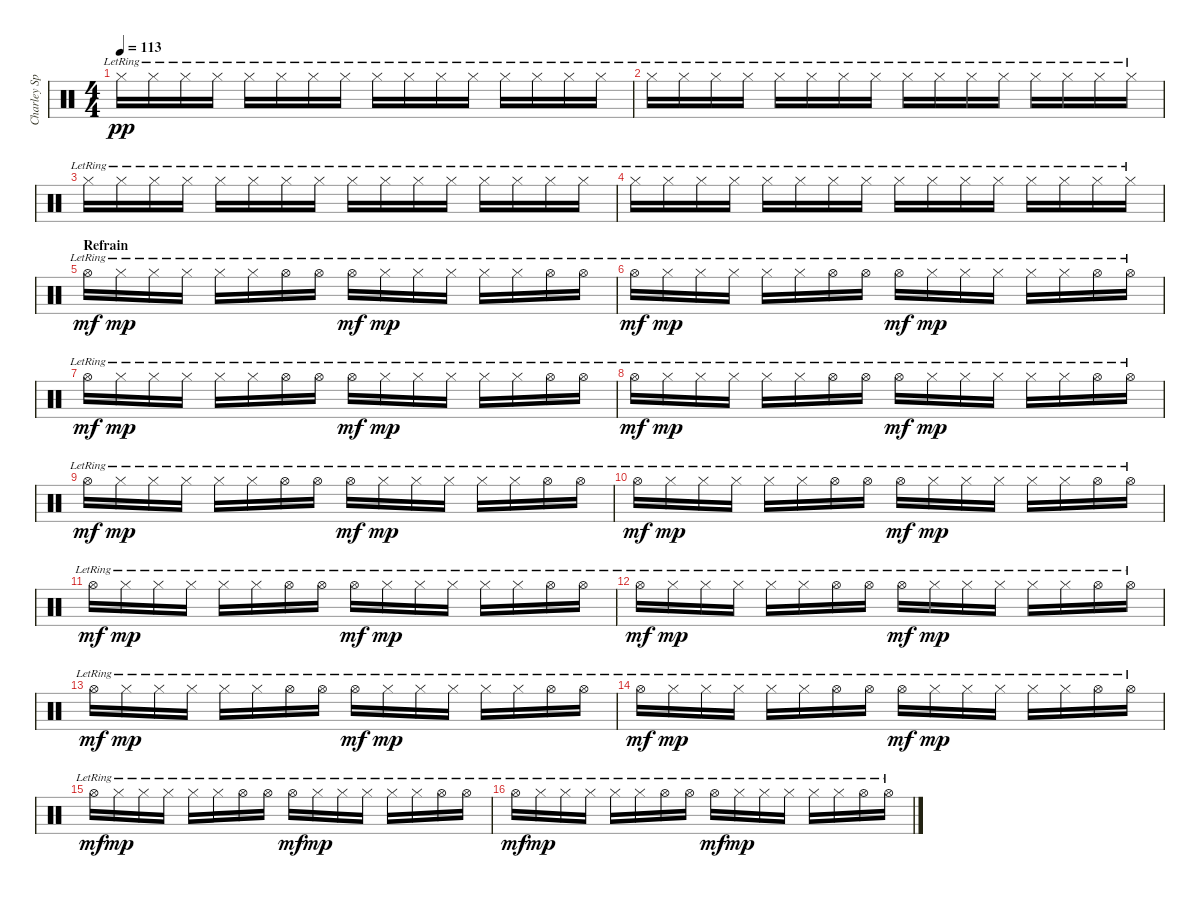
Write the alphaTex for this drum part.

\track ("Charley Spec." "Charley Sp") {instrument percussion}
\staff {score}
\articulation defaults
\ts (4 4)
\tempo 113
\clef neutral
\ks c "Hi-Hat (closed)"{lr}.16{dy pp} "Hi-Hat (closed)"{lr}.16 "Hi-Hat (closed)"{lr}.16 "Hi-Hat (closed)"{lr}.16 "Hi-Hat (closed)"{lr}.16 "Hi-Hat (closed)"{lr}.16 "Hi-Hat (closed)"{lr}.16 "Hi-Hat (closed)"{lr}.16 "Hi-Hat (closed)"{lr}.16 "Hi-Hat (closed)"{lr}.16 "Hi-Hat (closed)"{lr}.16 "Hi-Hat (closed)"{lr}.16 "Hi-Hat (closed)"{lr}.16 "Hi-Hat (closed)"{lr}.16 "Hi-Hat (closed)"{lr}.16 "Hi-Hat (closed)"{lr}.16
|
"Hi-Hat (closed)"{lr}.16 "Hi-Hat (closed)"{lr}.16 "Hi-Hat (closed)"{lr}.16 "Hi-Hat (closed)"{lr}.16 "Hi-Hat (closed)"{lr}.16 "Hi-Hat (closed)"{lr}.16 "Hi-Hat (closed)"{lr}.16 "Hi-Hat (closed)"{lr}.16 "Hi-Hat (closed)"{lr}.16 "Hi-Hat (closed)"{lr}.16 "Hi-Hat (closed)"{lr}.16 "Hi-Hat (closed)"{lr}.16 "Hi-Hat (closed)"{lr}.16 "Hi-Hat (closed)"{lr}.16 "Hi-Hat (closed)"{lr}.16 "Hi-Hat (closed)"{lr}.16 |
"Hi-Hat (closed)"{lr}.16 "Hi-Hat (closed)"{lr}.16 "Hi-Hat (closed)"{lr}.16 "Hi-Hat (closed)"{lr}.16 "Hi-Hat (closed)"{lr}.16 "Hi-Hat (closed)"{lr}.16 "Hi-Hat (closed)"{lr}.16 "Hi-Hat (closed)"{lr}.16 "Hi-Hat (closed)"{lr}.16 "Hi-Hat (closed)"{lr}.16 "Hi-Hat (closed)"{lr}.16 "Hi-Hat (closed)"{lr}.16 "Hi-Hat (closed)"{lr}.16 "Hi-Hat (closed)"{lr}.16 "Hi-Hat (closed)"{lr}.16 "Hi-Hat (closed)"{lr}.16 |
"Hi-Hat (closed)"{lr}.16 "Hi-Hat (closed)"{lr}.16 "Hi-Hat (closed)"{lr}.16 "Hi-Hat (closed)"{lr}.16 "Hi-Hat (closed)"{lr}.16 "Hi-Hat (closed)"{lr}.16 "Hi-Hat (closed)"{lr}.16 "Hi-Hat (closed)"{lr}.16 "Hi-Hat (closed)"{lr}.16 "Hi-Hat (closed)"{lr}.16 "Hi-Hat (closed)"{lr}.16 "Hi-Hat (closed)"{lr}.16 "Hi-Hat (closed)"{lr}.16 "Hi-Hat (closed)"{lr}.16 "Hi-Hat (closed)"{lr}.16 "Hi-Hat (closed)"{lr}.16 |
\section ("" "Refrain")
"Hi-Hat (open)"{lr}.16{dy mf} "Hi-Hat (closed)"{lr}.16{dy mp} "Hi-Hat (closed)"{lr}.16 "Hi-Hat (closed)"{lr}.16 "Hi-Hat (closed)"{lr}.16 "Hi-Hat (closed)"{lr}.16 "Hi-Hat (open)"{lr}.16 "Hi-Hat (open)"{lr}.16 "Hi-Hat (open)"{lr}.16{dy mf} "Hi-Hat (closed)"{lr}.16{dy mp} "Hi-Hat (closed)"{lr}.16 "Hi-Hat (closed)"{lr}.16 "Hi-Hat (closed)"{lr}.16 "Hi-Hat (closed)"{lr}.16 "Hi-Hat (open)"{lr}.16 "Hi-Hat (open)"{lr}.16 |
"Hi-Hat (open)"{lr}.16{dy mf} "Hi-Hat (closed)"{lr}.16{dy mp} "Hi-Hat (closed)"{lr}.16 "Hi-Hat (closed)"{lr}.16 "Hi-Hat (closed)"{lr}.16 "Hi-Hat (closed)"{lr}.16 "Hi-Hat (open)"{lr}.16 "Hi-Hat (open)"{lr}.16 "Hi-Hat (open)"{lr}.16{dy mf} "Hi-Hat (closed)"{lr}.16{dy mp} "Hi-Hat (closed)"{lr}.16 "Hi-Hat (closed)"{lr}.16 "Hi-Hat (closed)"{lr}.16 "Hi-Hat (closed)"{lr}.16 "Hi-Hat (open)"{lr}.16 "Hi-Hat (open)"{lr}.16 |
"Hi-Hat (open)"{lr}.16{dy mf} "Hi-Hat (closed)"{lr}.16{dy mp} "Hi-Hat (closed)"{lr}.16 "Hi-Hat (closed)"{lr}.16 "Hi-Hat (closed)"{lr}.16 "Hi-Hat (closed)"{lr}.16 "Hi-Hat (open)"{lr}.16 "Hi-Hat (open)"{lr}.16 "Hi-Hat (open)"{lr}.16{dy mf} "Hi-Hat (closed)"{lr}.16{dy mp} "Hi-Hat (closed)"{lr}.16 "Hi-Hat (closed)"{lr}.16 "Hi-Hat (closed)"{lr}.16 "Hi-Hat (closed)"{lr}.16 "Hi-Hat (open)"{lr}.16 "Hi-Hat (open)"{lr}.16 |
"Hi-Hat (open)"{lr}.16{dy mf} "Hi-Hat (closed)"{lr}.16{dy mp} "Hi-Hat (closed)"{lr}.16 "Hi-Hat (closed)"{lr}.16 "Hi-Hat (closed)"{lr}.16 "Hi-Hat (closed)"{lr}.16 "Hi-Hat (open)"{lr}.16 "Hi-Hat (open)"{lr}.16 "Hi-Hat (open)"{lr}.16{dy mf} "Hi-Hat (closed)"{lr}.16{dy mp} "Hi-Hat (closed)"{lr}.16 "Hi-Hat (closed)"{lr}.16 "Hi-Hat (closed)"{lr}.16 "Hi-Hat (closed)"{lr}.16 "Hi-Hat (open)"{lr}.16 "Hi-Hat (open)"{lr}.16 |
"Hi-Hat (open)"{lr}.16{dy mf} "Hi-Hat (closed)"{lr}.16{dy mp} "Hi-Hat (closed)"{lr}.16 "Hi-Hat (closed)"{lr}.16 "Hi-Hat (closed)"{lr}.16 "Hi-Hat (closed)"{lr}.16 "Hi-Hat (open)"{lr}.16 "Hi-Hat (open)"{lr}.16 "Hi-Hat (open)"{lr}.16{dy mf} "Hi-Hat (closed)"{lr}.16{dy mp} "Hi-Hat (closed)"{lr}.16 "Hi-Hat (closed)"{lr}.16 "Hi-Hat (closed)"{lr}.16 "Hi-Hat (closed)"{lr}.16 "Hi-Hat (open)"{lr}.16 "Hi-Hat (open)"{lr}.16 |
"Hi-Hat (open)"{lr}.16{dy mf} "Hi-Hat (closed)"{lr}.16{dy mp} "Hi-Hat (closed)"{lr}.16 "Hi-Hat (closed)"{lr}.16 "Hi-Hat (closed)"{lr}.16 "Hi-Hat (closed)"{lr}.16 "Hi-Hat (open)"{lr}.16 "Hi-Hat (open)"{lr}.16 "Hi-Hat (open)"{lr}.16{dy mf} "Hi-Hat (closed)"{lr}.16{dy mp} "Hi-Hat (closed)"{lr}.16 "Hi-Hat (closed)"{lr}.16 "Hi-Hat (closed)"{lr}.16 "Hi-Hat (closed)"{lr}.16 "Hi-Hat (open)"{lr}.16 "Hi-Hat (open)"{lr}.16 |
"Hi-Hat (open)"{lr}.16{dy mf} "Hi-Hat (closed)"{lr}.16{dy mp} "Hi-Hat (closed)"{lr}.16 "Hi-Hat (closed)"{lr}.16 "Hi-Hat (closed)"{lr}.16 "Hi-Hat (closed)"{lr}.16 "Hi-Hat (open)"{lr}.16 "Hi-Hat (open)"{lr}.16 "Hi-Hat (open)"{lr}.16{dy mf} "Hi-Hat (closed)"{lr}.16{dy mp} "Hi-Hat (closed)"{lr}.16 "Hi-Hat (closed)"{lr}.16 "Hi-Hat (closed)"{lr}.16 "Hi-Hat (closed)"{lr}.16 "Hi-Hat (open)"{lr}.16 "Hi-Hat (open)"{lr}.16 |
"Hi-Hat (open)"{lr}.16{dy mf} "Hi-Hat (closed)"{lr}.16{dy mp} "Hi-Hat (closed)"{lr}.16 "Hi-Hat (closed)"{lr}.16 "Hi-Hat (closed)"{lr}.16 "Hi-Hat (closed)"{lr}.16 "Hi-Hat (open)"{lr}.16 "Hi-Hat (open)"{lr}.16 "Hi-Hat (open)"{lr}.16{dy mf} "Hi-Hat (closed)"{lr}.16{dy mp} "Hi-Hat (closed)"{lr}.16 "Hi-Hat (closed)"{lr}.16 "Hi-Hat (closed)"{lr}.16 "Hi-Hat (closed)"{lr}.16 "Hi-Hat (open)"{lr}.16 "Hi-Hat (open)"{lr}.16 |
"Hi-Hat (open)"{lr}.16{dy mf} "Hi-Hat (closed)"{lr}.16{dy mp} "Hi-Hat (closed)"{lr}.16 "Hi-Hat (closed)"{lr}.16 "Hi-Hat (closed)"{lr}.16 "Hi-Hat (closed)"{lr}.16 "Hi-Hat (open)"{lr}.16 "Hi-Hat (open)"{lr}.16 "Hi-Hat (open)"{lr}.16{dy mf} "Hi-Hat (closed)"{lr}.16{dy mp} "Hi-Hat (closed)"{lr}.16 "Hi-Hat (closed)"{lr}.16 "Hi-Hat (closed)"{lr}.16 "Hi-Hat (closed)"{lr}.16 "Hi-Hat (open)"{lr}.16 "Hi-Hat (open)"{lr}.16 |
"Hi-Hat (open)"{lr}.16{dy mf} "Hi-Hat (closed)"{lr}.16{dy mp} "Hi-Hat (closed)"{lr}.16 "Hi-Hat (closed)"{lr}.16 "Hi-Hat (closed)"{lr}.16 "Hi-Hat (closed)"{lr}.16 "Hi-Hat (open)"{lr}.16 "Hi-Hat (open)"{lr}.16 "Hi-Hat (open)"{lr}.16{dy mf} "Hi-Hat (closed)"{lr}.16{dy mp} "Hi-Hat (closed)"{lr}.16 "Hi-Hat (closed)"{lr}.16 "Hi-Hat (closed)"{lr}.16 "Hi-Hat (closed)"{lr}.16 "Hi-Hat (open)"{lr}.16 "Hi-Hat (open)"{lr}.16 |
"Hi-Hat (open)"{lr}.16{dy mf} "Hi-Hat (closed)"{lr}.16{dy mp} "Hi-Hat (closed)"{lr}.16 "Hi-Hat (closed)"{lr}.16 "Hi-Hat (closed)"{lr}.16 "Hi-Hat (closed)"{lr}.16 "Hi-Hat (open)"{lr}.16 "Hi-Hat (open)"{lr}.16 "Hi-Hat (open)"{lr}.16{dy mf} "Hi-Hat (closed)"{lr}.16{dy mp} "Hi-Hat (closed)"{lr}.16 "Hi-Hat (closed)"{lr}.16 "Hi-Hat (closed)"{lr}.16 "Hi-Hat (closed)"{lr}.16 "Hi-Hat (open)"{lr}.16 "Hi-Hat (open)"{lr}.16 |
"Hi-Hat (open)"{lr}.16{dy mf} "Hi-Hat (closed)"{lr}.16{dy mp} "Hi-Hat (closed)"{lr}.16 "Hi-Hat (closed)"{lr}.16 "Hi-Hat (closed)"{lr}.16 "Hi-Hat (closed)"{lr}.16 "Hi-Hat (open)"{lr}.16 "Hi-Hat (open)"{lr}.16 "Hi-Hat (open)"{lr}.16{dy mf} "Hi-Hat (closed)"{lr}.16{dy mp} "Hi-Hat (closed)"{lr}.16 "Hi-Hat (closed)"{lr}.16 "Hi-Hat (closed)"{lr}.16 "Hi-Hat (closed)"{lr}.16 "Hi-Hat (open)"{lr}.16 "Hi-Hat (open)"{lr}.16
